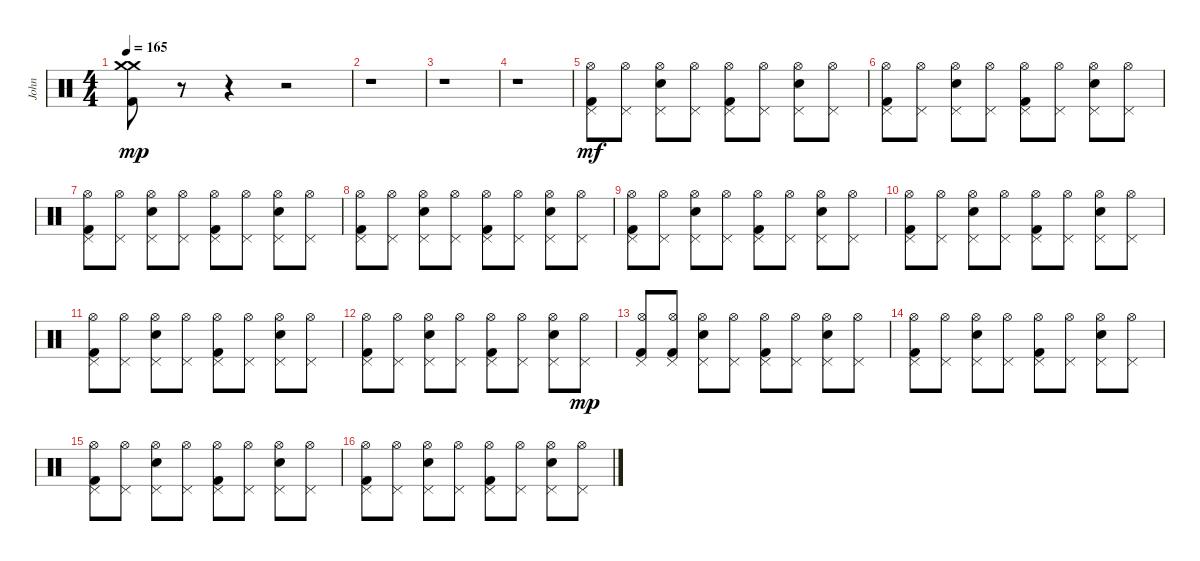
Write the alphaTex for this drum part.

\track ("John" "John") {instrument percussion}
\staff {score}
\articulation defaults
\ts (4 4)
\tempo 165
\clef neutral
\ks c
("Crash medium (hit)" "Crash medium (hit)" "Kick (hit) 2").8{dy mp} r.8 r.4 r.2 |
r.1 |
r.1 |
r.1 |
("Hi-Hat (open)" "Pedal Hi-Hat (hit)" "Kick (hit) 2").8{dy mf} ("Hi-Hat (open)" "Pedal Hi-Hat (hit)").8 ("Hi-Hat (open)" "Pedal Hi-Hat (hit)" "Electric Snare (hit)").8 ("Hi-Hat (open)" "Pedal Hi-Hat (hit)").8 ("Hi-Hat (open)" "Pedal Hi-Hat (hit)" "Kick (hit) 2").8 ("Hi-Hat (open)" "Pedal Hi-Hat (hit)").8 ("Hi-Hat (open)" "Pedal Hi-Hat (hit)" "Electric Snare (hit)").8 ("Hi-Hat (open)" "Pedal Hi-Hat (hit)").8 |
("Hi-Hat (open)" "Pedal Hi-Hat (hit)" "Kick (hit) 2").8 ("Hi-Hat (open)" "Pedal Hi-Hat (hit)").8 ("Hi-Hat (open)" "Pedal Hi-Hat (hit)" "Electric Snare (hit)").8 ("Hi-Hat (open)" "Pedal Hi-Hat (hit)").8 ("Hi-Hat (open)" "Pedal Hi-Hat (hit)" "Kick (hit) 2").8 ("Hi-Hat (open)" "Pedal Hi-Hat (hit)").8 ("Hi-Hat (open)" "Pedal Hi-Hat (hit)" "Electric Snare (hit)").8 ("Hi-Hat (open)" "Pedal Hi-Hat (hit)").8 |
("Hi-Hat (open)" "Pedal Hi-Hat (hit)" "Kick (hit) 2").8 ("Hi-Hat (open)" "Pedal Hi-Hat (hit)").8 ("Hi-Hat (open)" "Pedal Hi-Hat (hit)" "Electric Snare (hit)").8 ("Hi-Hat (open)" "Pedal Hi-Hat (hit)").8 ("Hi-Hat (open)" "Pedal Hi-Hat (hit)" "Kick (hit) 2").8 ("Hi-Hat (open)" "Pedal Hi-Hat (hit)").8 ("Hi-Hat (open)" "Pedal Hi-Hat (hit)" "Electric Snare (hit)").8 ("Hi-Hat (open)" "Pedal Hi-Hat (hit)").8 |
("Hi-Hat (open)" "Pedal Hi-Hat (hit)" "Kick (hit) 2").8 ("Hi-Hat (open)" "Pedal Hi-Hat (hit)").8 ("Hi-Hat (open)" "Pedal Hi-Hat (hit)" "Electric Snare (hit)").8 ("Hi-Hat (open)" "Pedal Hi-Hat (hit)").8 ("Hi-Hat (open)" "Pedal Hi-Hat (hit)" "Kick (hit) 2").8 ("Hi-Hat (open)" "Pedal Hi-Hat (hit)").8 ("Hi-Hat (open)" "Pedal Hi-Hat (hit)" "Electric Snare (hit)").8 ("Hi-Hat (open)" "Pedal Hi-Hat (hit)").8 |
("Hi-Hat (open)" "Pedal Hi-Hat (hit)" "Kick (hit) 2").8 ("Hi-Hat (open)" "Pedal Hi-Hat (hit)").8 ("Hi-Hat (open)" "Pedal Hi-Hat (hit)" "Electric Snare (hit)").8 ("Hi-Hat (open)" "Pedal Hi-Hat (hit)").8 ("Hi-Hat (open)" "Pedal Hi-Hat (hit)" "Kick (hit) 2").8 ("Hi-Hat (open)" "Pedal Hi-Hat (hit)").8 ("Hi-Hat (open)" "Pedal Hi-Hat (hit)" "Electric Snare (hit)").8 ("Hi-Hat (open)" "Pedal Hi-Hat (hit)").8 |
("Hi-Hat (open)" "Pedal Hi-Hat (hit)" "Kick (hit) 2").8 ("Hi-Hat (open)" "Pedal Hi-Hat (hit)").8 ("Hi-Hat (open)" "Pedal Hi-Hat (hit)" "Electric Snare (hit)").8 ("Hi-Hat (open)" "Pedal Hi-Hat (hit)").8 ("Hi-Hat (open)" "Pedal Hi-Hat (hit)" "Kick (hit) 2").8 ("Hi-Hat (open)" "Pedal Hi-Hat (hit)").8 ("Hi-Hat (open)" "Pedal Hi-Hat (hit)" "Electric Snare (hit)").8 ("Hi-Hat (open)" "Pedal Hi-Hat (hit)").8 |
("Hi-Hat (open)" "Pedal Hi-Hat (hit)" "Kick (hit) 2").8 ("Hi-Hat (open)" "Pedal Hi-Hat (hit)").8 ("Hi-Hat (open)" "Pedal Hi-Hat (hit)" "Electric Snare (hit)").8 ("Hi-Hat (open)" "Pedal Hi-Hat (hit)").8 ("Hi-Hat (open)" "Pedal Hi-Hat (hit)" "Kick (hit) 2").8 ("Hi-Hat (open)" "Pedal Hi-Hat (hit)").8 ("Hi-Hat (open)" "Pedal Hi-Hat (hit)" "Electric Snare (hit)").8 ("Hi-Hat (open)" "Pedal Hi-Hat (hit)").8 |
("Hi-Hat (open)" "Pedal Hi-Hat (hit)" "Kick (hit) 2").8 ("Hi-Hat (open)" "Pedal Hi-Hat (hit)").8 ("Hi-Hat (open)" "Pedal Hi-Hat (hit)" "Electric Snare (hit)").8 ("Hi-Hat (open)" "Pedal Hi-Hat (hit)").8 ("Hi-Hat (open)" "Pedal Hi-Hat (hit)" "Kick (hit) 2").8 ("Hi-Hat (open)" "Pedal Hi-Hat (hit)").8 ("Hi-Hat (open)" "Pedal Hi-Hat (hit)" "Electric Snare (hit)").8 ("Hi-Hat (open)" "Pedal Hi-Hat (hit)").8{dy mp} |
("Hi-Hat (open)" "Pedal Hi-Hat (hit)" "Kick (hit) 2").8 ("Hi-Hat (open)" "Pedal Hi-Hat (hit)" "Kick (hit) 2").8 ("Hi-Hat (open)" "Pedal Hi-Hat (hit)" "Electric Snare (hit)").8 ("Hi-Hat (open)" "Pedal Hi-Hat (hit)").8 ("Hi-Hat (open)" "Pedal Hi-Hat (hit)" "Kick (hit) 2").8 ("Hi-Hat (open)" "Pedal Hi-Hat (hit)").8 ("Hi-Hat (open)" "Pedal Hi-Hat (hit)" "Electric Snare (hit)").8 ("Hi-Hat (open)" "Pedal Hi-Hat (hit)").8 |
("Hi-Hat (open)" "Pedal Hi-Hat (hit)" "Kick (hit) 2").8 ("Hi-Hat (open)" "Pedal Hi-Hat (hit)").8 ("Hi-Hat (open)" "Pedal Hi-Hat (hit)" "Electric Snare (hit)").8 ("Hi-Hat (open)" "Pedal Hi-Hat (hit)").8 ("Hi-Hat (open)" "Pedal Hi-Hat (hit)" "Kick (hit) 2").8 ("Hi-Hat (open)" "Pedal Hi-Hat (hit)").8 ("Hi-Hat (open)" "Pedal Hi-Hat (hit)" "Electric Snare (hit)").8 ("Hi-Hat (open)" "Pedal Hi-Hat (hit)").8 |
("Hi-Hat (open)" "Pedal Hi-Hat (hit)" "Kick (hit) 2").8 ("Hi-Hat (open)" "Pedal Hi-Hat (hit)").8 ("Hi-Hat (open)" "Pedal Hi-Hat (hit)" "Electric Snare (hit)").8 ("Hi-Hat (open)" "Pedal Hi-Hat (hit)").8 ("Hi-Hat (open)" "Pedal Hi-Hat (hit)" "Kick (hit) 2").8 ("Hi-Hat (open)" "Pedal Hi-Hat (hit)").8 ("Hi-Hat (open)" "Pedal Hi-Hat (hit)" "Electric Snare (hit)").8 ("Hi-Hat (open)" "Pedal Hi-Hat (hit)").8 |
("Hi-Hat (open)" "Pedal Hi-Hat (hit)" "Kick (hit) 2").8 ("Hi-Hat (open)" "Pedal Hi-Hat (hit)").8 ("Hi-Hat (open)" "Pedal Hi-Hat (hit)" "Electric Snare (hit)").8 ("Hi-Hat (open)" "Pedal Hi-Hat (hit)").8 ("Hi-Hat (open)" "Pedal Hi-Hat (hit)" "Kick (hit) 2").8 ("Hi-Hat (open)" "Pedal Hi-Hat (hit)").8 ("Hi-Hat (open)" "Pedal Hi-Hat (hit)" "Electric Snare (hit)").8 ("Hi-Hat (open)" "Pedal Hi-Hat (hit)").8
